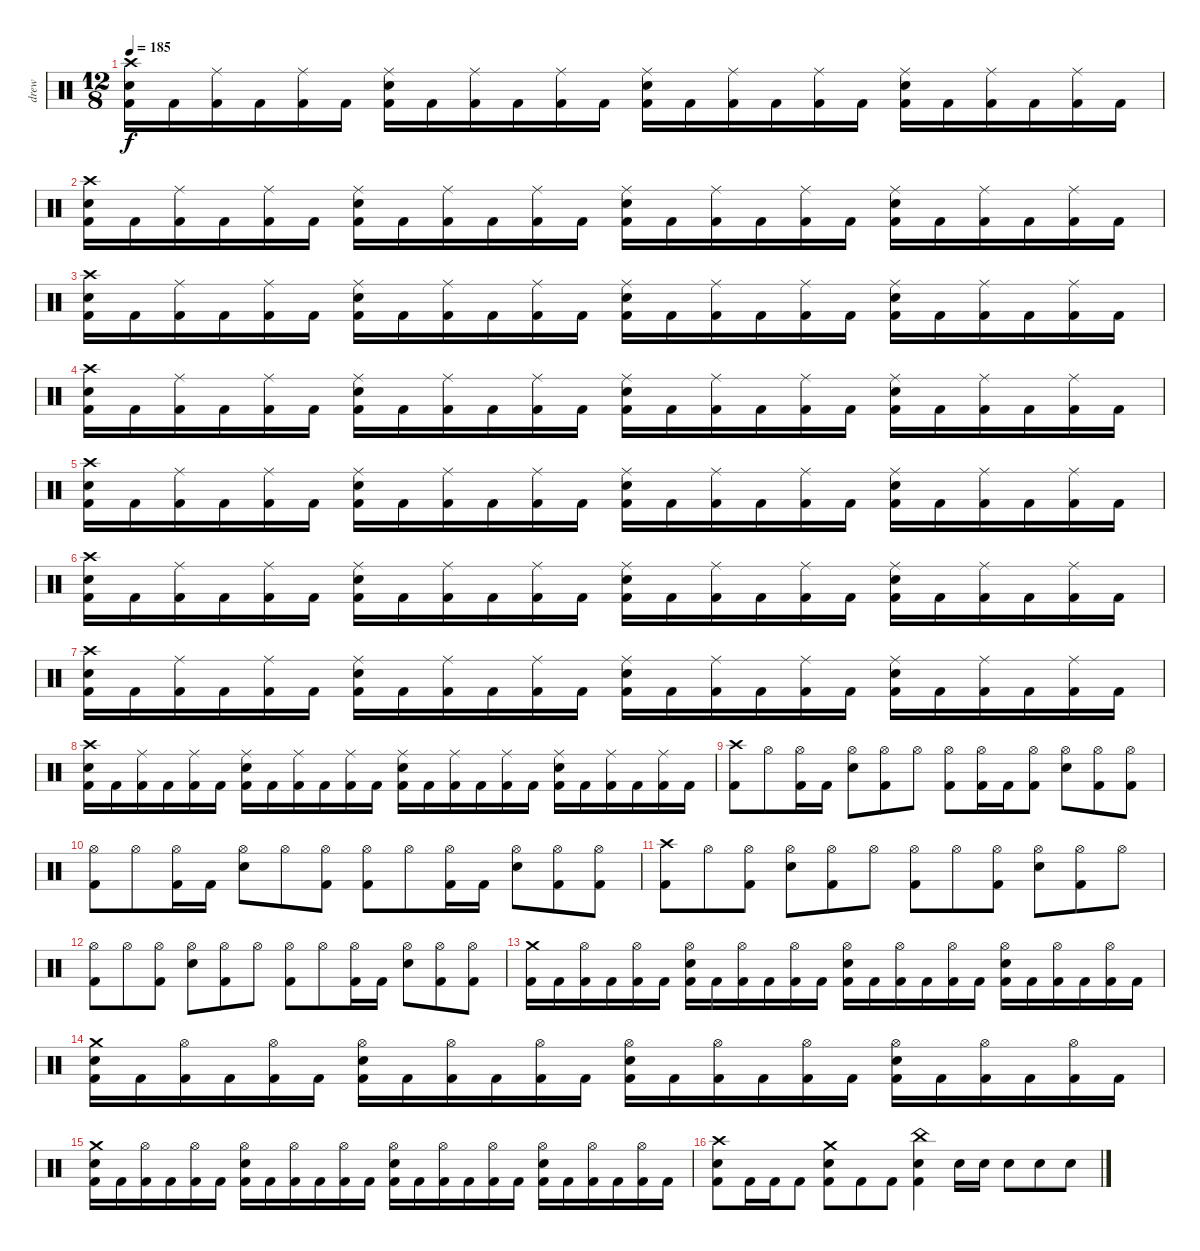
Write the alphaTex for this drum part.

\track ("drew" "drew") {instrument percussion}
\staff {score}
\articulation defaults
\ts (12 8)
\tempo 185
\clef neutral
\ks c
("Crash high (hit)" "Electric Snare (hit)" "Kick (hit) 2").16{dy f} "Kick (hit) 2".16 ("Ride (middle)" "Kick (hit) 2").16 "Kick (hit) 2".16 ("Ride (middle)" "Kick (hit) 2").16 "Kick (hit) 2".16 ("Ride (middle)" "Electric Snare (hit)" "Kick (hit) 2").16 "Kick (hit) 2".16 ("Ride (middle)" "Kick (hit) 2").16 "Kick (hit) 2".16 ("Ride (middle)" "Kick (hit) 2").16 "Kick (hit) 2".16 ("Ride (middle)" "Electric Snare (hit)" "Kick (hit) 2").16 "Kick (hit) 2".16 ("Ride (middle)" "Kick (hit) 2").16 "Kick (hit) 2".16 ("Ride (middle)" "Kick (hit) 2").16 "Kick (hit) 2".16 ("Ride (middle)" "Electric Snare (hit)" "Kick (hit) 2").16 "Kick (hit) 2".16 ("Ride (middle)" "Kick (hit) 2").16 "Kick (hit) 2".16 ("Ride (middle)" "Kick (hit) 2").16 "Kick (hit) 2".16 |
("Crash high (hit)" "Electric Snare (hit)" "Kick (hit) 2").16 "Kick (hit) 2".16 ("Ride (middle)" "Kick (hit) 2").16 "Kick (hit) 2".16 ("Ride (middle)" "Kick (hit) 2").16 "Kick (hit) 2".16 ("Ride (middle)" "Electric Snare (hit)" "Kick (hit) 2").16 "Kick (hit) 2".16 ("Ride (middle)" "Kick (hit) 2").16 "Kick (hit) 2".16 ("Ride (middle)" "Kick (hit) 2").16 "Kick (hit) 2".16 ("Ride (middle)" "Electric Snare (hit)" "Kick (hit) 2").16 "Kick (hit) 2".16 ("Ride (middle)" "Kick (hit) 2").16 "Kick (hit) 2".16 ("Ride (middle)" "Kick (hit) 2").16 "Kick (hit) 2".16 ("Ride (middle)" "Electric Snare (hit)" "Kick (hit) 2").16 "Kick (hit) 2".16 ("Ride (middle)" "Kick (hit) 2").16 "Kick (hit) 2".16 ("Ride (middle)" "Kick (hit) 2").16 "Kick (hit) 2".16 |
("Crash high (hit)" "Electric Snare (hit)" "Kick (hit) 2").16 "Kick (hit) 2".16 ("Ride (middle)" "Kick (hit) 2").16 "Kick (hit) 2".16 ("Ride (middle)" "Kick (hit) 2").16 "Kick (hit) 2".16 ("Ride (middle)" "Electric Snare (hit)" "Kick (hit) 2").16 "Kick (hit) 2".16 ("Ride (middle)" "Kick (hit) 2").16 "Kick (hit) 2".16 ("Ride (middle)" "Kick (hit) 2").16 "Kick (hit) 2".16 ("Ride (middle)" "Electric Snare (hit)" "Kick (hit) 2").16 "Kick (hit) 2".16 ("Ride (middle)" "Kick (hit) 2").16 "Kick (hit) 2".16 ("Ride (middle)" "Kick (hit) 2").16 "Kick (hit) 2".16 ("Ride (middle)" "Electric Snare (hit)" "Kick (hit) 2").16 "Kick (hit) 2".16 ("Ride (middle)" "Kick (hit) 2").16 "Kick (hit) 2".16 ("Ride (middle)" "Kick (hit) 2").16 "Kick (hit) 2".16 |
("Crash high (hit)" "Electric Snare (hit)" "Kick (hit) 2").16 "Kick (hit) 2".16 ("Ride (middle)" "Kick (hit) 2").16 "Kick (hit) 2".16 ("Ride (middle)" "Kick (hit) 2").16 "Kick (hit) 2".16 ("Ride (middle)" "Electric Snare (hit)" "Kick (hit) 2").16 "Kick (hit) 2".16 ("Ride (middle)" "Kick (hit) 2").16 "Kick (hit) 2".16 ("Ride (middle)" "Kick (hit) 2").16 "Kick (hit) 2".16 ("Ride (middle)" "Electric Snare (hit)" "Kick (hit) 2").16 "Kick (hit) 2".16 ("Ride (middle)" "Kick (hit) 2").16 "Kick (hit) 2".16 ("Ride (middle)" "Kick (hit) 2").16 "Kick (hit) 2".16 ("Ride (middle)" "Electric Snare (hit)" "Kick (hit) 2").16 "Kick (hit) 2".16 ("Ride (middle)" "Kick (hit) 2").16 "Kick (hit) 2".16 ("Ride (middle)" "Kick (hit) 2").16 "Kick (hit) 2".16 |
("Crash high (hit)" "Electric Snare (hit)" "Kick (hit) 2").16 "Kick (hit) 2".16 ("Ride (middle)" "Kick (hit) 2").16 "Kick (hit) 2".16 ("Ride (middle)" "Kick (hit) 2").16 "Kick (hit) 2".16 ("Ride (middle)" "Electric Snare (hit)" "Kick (hit) 2").16 "Kick (hit) 2".16 ("Ride (middle)" "Kick (hit) 2").16 "Kick (hit) 2".16 ("Ride (middle)" "Kick (hit) 2").16 "Kick (hit) 2".16 ("Ride (middle)" "Electric Snare (hit)" "Kick (hit) 2").16 "Kick (hit) 2".16 ("Ride (middle)" "Kick (hit) 2").16 "Kick (hit) 2".16 ("Ride (middle)" "Kick (hit) 2").16 "Kick (hit) 2".16 ("Ride (middle)" "Electric Snare (hit)" "Kick (hit) 2").16 "Kick (hit) 2".16 ("Ride (middle)" "Kick (hit) 2").16 "Kick (hit) 2".16 ("Ride (middle)" "Kick (hit) 2").16 "Kick (hit) 2".16 |
("Crash high (hit)" "Electric Snare (hit)" "Kick (hit) 2").16 "Kick (hit) 2".16 ("Ride (middle)" "Kick (hit) 2").16 "Kick (hit) 2".16 ("Ride (middle)" "Kick (hit) 2").16 "Kick (hit) 2".16 ("Ride (middle)" "Electric Snare (hit)" "Kick (hit) 2").16 "Kick (hit) 2".16 ("Ride (middle)" "Kick (hit) 2").16 "Kick (hit) 2".16 ("Ride (middle)" "Kick (hit) 2").16 "Kick (hit) 2".16 ("Ride (middle)" "Electric Snare (hit)" "Kick (hit) 2").16 "Kick (hit) 2".16 ("Ride (middle)" "Kick (hit) 2").16 "Kick (hit) 2".16 ("Ride (middle)" "Kick (hit) 2").16 "Kick (hit) 2".16 ("Ride (middle)" "Electric Snare (hit)" "Kick (hit) 2").16 "Kick (hit) 2".16 ("Ride (middle)" "Kick (hit) 2").16 "Kick (hit) 2".16 ("Ride (middle)" "Kick (hit) 2").16 "Kick (hit) 2".16 |
("Crash high (hit)" "Electric Snare (hit)" "Kick (hit) 2").16 "Kick (hit) 2".16 ("Ride (middle)" "Kick (hit) 2").16 "Kick (hit) 2".16 ("Ride (middle)" "Kick (hit) 2").16 "Kick (hit) 2".16 ("Ride (middle)" "Electric Snare (hit)" "Kick (hit) 2").16 "Kick (hit) 2".16 ("Ride (middle)" "Kick (hit) 2").16 "Kick (hit) 2".16 ("Ride (middle)" "Kick (hit) 2").16 "Kick (hit) 2".16 ("Ride (middle)" "Electric Snare (hit)" "Kick (hit) 2").16 "Kick (hit) 2".16 ("Ride (middle)" "Kick (hit) 2").16 "Kick (hit) 2".16 ("Ride (middle)" "Kick (hit) 2").16 "Kick (hit) 2".16 ("Ride (middle)" "Electric Snare (hit)" "Kick (hit) 2").16 "Kick (hit) 2".16 ("Ride (middle)" "Kick (hit) 2").16 "Kick (hit) 2".16 ("Ride (middle)" "Kick (hit) 2").16 "Kick (hit) 2".16 |
("Crash high (hit)" "Electric Snare (hit)" "Kick (hit) 2").16 "Kick (hit) 2".16 ("Ride (middle)" "Kick (hit) 2").16 "Kick (hit) 2".16 ("Ride (middle)" "Kick (hit) 2").16 "Kick (hit) 2".16 ("Ride (middle)" "Electric Snare (hit)" "Kick (hit) 2").16 "Kick (hit) 2".16 ("Ride (middle)" "Kick (hit) 2").16 "Kick (hit) 2".16 ("Ride (middle)" "Kick (hit) 2").16 "Kick (hit) 2".16 ("Ride (middle)" "Electric Snare (hit)" "Kick (hit) 2").16 "Kick (hit) 2".16 ("Ride (middle)" "Kick (hit) 2").16 "Kick (hit) 2".16 ("Ride (middle)" "Kick (hit) 2").16 "Kick (hit) 2".16 ("Ride (middle)" "Electric Snare (hit)" "Kick (hit) 2").16 "Kick (hit) 2".16 ("Ride (middle)" "Kick (hit) 2").16 "Kick (hit) 2".16 ("Ride (middle)" "Kick (hit) 2").16 "Kick (hit) 2".16 |
("Crash high (hit)" "Kick (hit) 2").8 "Hi-Hat (open)".8 ("Hi-Hat (open)" "Kick (hit) 2").16 "Kick (hit) 2".16 ("Hi-Hat (open)" "Electric Snare (hit)").8 ("Hi-Hat (open)" "Kick (hit) 2").8 "Hi-Hat (open)".8 ("Hi-Hat (open)" "Kick (hit) 2").8 ("Hi-Hat (open)" "Kick (hit) 2").16 "Kick (hit) 2".16 ("Hi-Hat (open)" "Kick (hit) 2").8 ("Hi-Hat (open)" "Electric Snare (hit)").8 ("Hi-Hat (open)" "Kick (hit) 2").8 ("Hi-Hat (open)" "Kick (hit) 2").8 |
("Hi-Hat (open)" "Kick (hit) 2").8 "Hi-Hat (open)".8 ("Hi-Hat (open)" "Kick (hit) 2").16 "Kick (hit) 2".16 ("Hi-Hat (open)" "Electric Snare (hit)").8 "Hi-Hat (open)".8 ("Hi-Hat (open)" "Kick (hit) 2").8 ("Hi-Hat (open)" "Kick (hit) 2").8 "Hi-Hat (open)".8 ("Hi-Hat (open)" "Kick (hit) 2").16 "Kick (hit) 2".16 ("Hi-Hat (open)" "Electric Snare (hit)").8 ("Hi-Hat (open)" "Kick (hit) 2").8 ("Hi-Hat (open)" "Kick (hit) 2").8 |
("Crash high (hit)" "Kick (hit) 2").8 "Hi-Hat (open)".8 ("Hi-Hat (open)" "Kick (hit) 2").8 ("Hi-Hat (open)" "Electric Snare (hit)").8 ("Hi-Hat (open)" "Kick (hit) 2").8 "Hi-Hat (open)".8 ("Hi-Hat (open)" "Kick (hit) 2").8 "Hi-Hat (open)".8 ("Hi-Hat (open)" "Kick (hit) 2").8 ("Hi-Hat (open)" "Electric Snare (hit)").8 ("Hi-Hat (open)" "Kick (hit) 2").8 "Hi-Hat (open)".8 |
("Hi-Hat (open)" "Kick (hit) 2").8 "Hi-Hat (open)".8 ("Hi-Hat (open)" "Kick (hit) 2").8 ("Hi-Hat (open)" "Electric Snare (hit)").8 ("Hi-Hat (open)" "Kick (hit) 2").8 "Hi-Hat (open)".8 ("Hi-Hat (open)" "Kick (hit) 2").8 "Hi-Hat (open)".8 ("Hi-Hat (open)" "Kick (hit) 2").16 "Kick (hit) 2".16 ("Hi-Hat (open)" "Electric Snare (hit)").8 ("Hi-Hat (open)" "Kick (hit) 2").8 ("Hi-Hat (open)" "Kick (hit) 2").8 |
("Crash medium (hit)" "Kick (hit) 2").16 "Kick (hit) 2".16 ("Hi-Hat (open)" "Kick (hit) 2").16 "Kick (hit) 2".16 ("Hi-Hat (open)" "Kick (hit) 2").16 "Kick (hit) 2".16 ("Hi-Hat (open)" "Electric Snare (hit)" "Kick (hit) 2").16 "Kick (hit) 2".16 ("Hi-Hat (open)" "Kick (hit) 2").16 "Kick (hit) 2".16 ("Hi-Hat (open)" "Kick (hit) 2").16 "Kick (hit) 2".16 ("Hi-Hat (open)" "Electric Snare (hit)" "Kick (hit) 2").16 "Kick (hit) 2".16 ("Hi-Hat (open)" "Kick (hit) 2").16 "Kick (hit) 2".16 ("Hi-Hat (open)" "Kick (hit) 2").16 "Kick (hit) 2".16 ("Hi-Hat (open)" "Electric Snare (hit)" "Kick (hit) 2").16 "Kick (hit) 2".16 ("Hi-Hat (open)" "Kick (hit) 2").16 "Kick (hit) 2".16 ("Hi-Hat (open)" "Kick (hit) 2").16 "Kick (hit) 2".16 |
("Crash medium (hit)" "Electric Snare (hit)" "Kick (hit) 2").16 "Kick (hit) 2".16 ("Hi-Hat (open)" "Kick (hit) 2").16 "Kick (hit) 2".16 ("Hi-Hat (open)" "Kick (hit) 2").16 "Kick (hit) 2".16 ("Hi-Hat (open)" "Electric Snare (hit)" "Kick (hit) 2").16 "Kick (hit) 2".16 ("Hi-Hat (open)" "Kick (hit) 2").16 "Kick (hit) 2".16 ("Hi-Hat (open)" "Kick (hit) 2").16 "Kick (hit) 2".16 ("Hi-Hat (open)" "Electric Snare (hit)" "Kick (hit) 2").16 "Kick (hit) 2".16 ("Hi-Hat (open)" "Kick (hit) 2").16 "Kick (hit) 2".16 ("Hi-Hat (open)" "Kick (hit) 2").16 "Kick (hit) 2".16 ("Hi-Hat (open)" "Electric Snare (hit)" "Kick (hit) 2").16 "Kick (hit) 2".16 ("Hi-Hat (open)" "Kick (hit) 2").16 "Kick (hit) 2".16 ("Hi-Hat (open)" "Kick (hit) 2").16 "Kick (hit) 2".16 |
("Crash medium (hit)" "Electric Snare (hit)" "Kick (hit) 2").16 "Kick (hit) 2".16 ("Hi-Hat (open)" "Kick (hit) 2").16 "Kick (hit) 2".16 ("Hi-Hat (open)" "Kick (hit) 2").16 "Kick (hit) 2".16 ("Hi-Hat (open)" "Electric Snare (hit)" "Kick (hit) 2").16 "Kick (hit) 2".16 ("Hi-Hat (open)" "Kick (hit) 2").16 "Kick (hit) 2".16 ("Hi-Hat (open)" "Kick (hit) 2").16 "Kick (hit) 2".16 ("Hi-Hat (open)" "Electric Snare (hit)" "Kick (hit) 2").16 "Kick (hit) 2".16 ("Hi-Hat (open)" "Kick (hit) 2").16 "Kick (hit) 2".16 ("Hi-Hat (open)" "Kick (hit) 2").16 "Kick (hit) 2".16 ("Hi-Hat (open)" "Electric Snare (hit)" "Kick (hit) 2").16 "Kick (hit) 2".16 ("Hi-Hat (open)" "Kick (hit) 2").16 "Kick (hit) 2".16 ("Hi-Hat (open)" "Kick (hit) 2").16 "Kick (hit) 2".16 |
("Crash high (hit)" "Electric Snare (hit)" "Kick (hit) 2").8 "Kick (hit) 2".16 "Kick (hit) 2".16 "Kick (hit) 2".8 ("Crash medium (hit)" "Electric Snare (hit)" "Kick (hit) 2").8 "Kick (hit) 2".8 "Kick (hit) 2".8 ("China (hit)" "Electric Snare (hit)" "Kick (hit) 2").4 "Electric Snare (hit)".16 "Electric Snare (hit)".16 "Electric Snare (hit)".8 "Electric Snare (hit)".8 "Electric Snare (hit)".8
